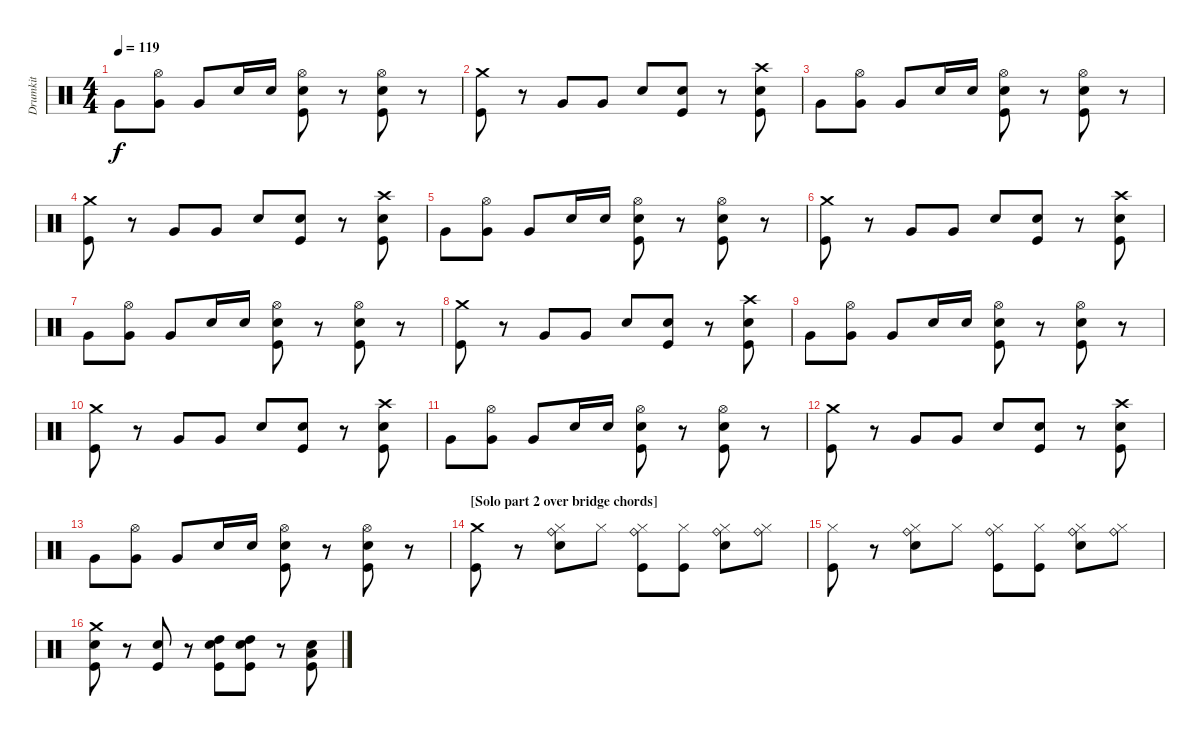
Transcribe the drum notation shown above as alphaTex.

\track ("Drumkit" "Drumkit") {instrument percussion}
\staff {score}
\articulation defaults
\ts (4 4)
\tempo 119
\clef neutral
\ks c "Very Low Tom (hit)".8{dy f}
("Hi-Hat (open)" "Very Low Tom (hit)").8 "Very Low Tom (hit)".8 "Snare (hit) 2".16 "Snare (hit) 2".16 ("Hi-Hat (open)" "Snare (hit) 2" "Kick (hit)").8 r.8 ("Hi-Hat (open)" "Snare (hit) 2" "Kick (hit)").8 r.8 |
("Crash medium (hit)" "Kick (hit)").8 r.8 "Very Low Tom (hit)".8 "Very Low Tom (hit)".8 "Snare (hit) 2".8 ("Snare (hit) 2" "Kick (hit)").8 r.8 ("Crash high (hit)" "Snare (hit) 2" "Kick (hit)").8 |
"Very Low Tom (hit)".8 ("Hi-Hat (open)" "Very Low Tom (hit)").8 "Very Low Tom (hit)".8 "Snare (hit) 2".16 "Snare (hit) 2".16 ("Hi-Hat (open)" "Snare (hit) 2" "Kick (hit)").8 r.8 ("Hi-Hat (open)" "Snare (hit) 2" "Kick (hit)").8 r.8 |
("Crash medium (hit)" "Kick (hit)").8 r.8 "Very Low Tom (hit)".8 "Very Low Tom (hit)".8 "Snare (hit) 2".8 ("Snare (hit) 2" "Kick (hit)").8 r.8 ("Crash high (hit)" "Snare (hit) 2" "Kick (hit)").8 |
"Very Low Tom (hit)".8 ("Hi-Hat (open)" "Very Low Tom (hit)").8 "Very Low Tom (hit)".8 "Snare (hit) 2".16 "Snare (hit) 2".16 ("Hi-Hat (open)" "Snare (hit) 2" "Kick (hit)").8 r.8 ("Hi-Hat (open)" "Snare (hit) 2" "Kick (hit)").8 r.8 |
("Crash medium (hit)" "Kick (hit)").8 r.8 "Very Low Tom (hit)".8 "Very Low Tom (hit)".8 "Snare (hit) 2".8 ("Snare (hit) 2" "Kick (hit)").8 r.8 ("Crash high (hit)" "Snare (hit) 2" "Kick (hit)").8 |
"Very Low Tom (hit)".8 ("Hi-Hat (open)" "Very Low Tom (hit)").8 "Very Low Tom (hit)".8 "Snare (hit) 2".16 "Snare (hit) 2".16 ("Hi-Hat (open)" "Snare (hit) 2" "Kick (hit)").8 r.8 ("Hi-Hat (open)" "Snare (hit) 2" "Kick (hit)").8 r.8 |
("Crash medium (hit)" "Kick (hit)").8 r.8 "Very Low Tom (hit)".8 "Very Low Tom (hit)".8 "Snare (hit) 2".8 ("Snare (hit) 2" "Kick (hit)").8 r.8 ("Crash high (hit)" "Snare (hit) 2" "Kick (hit)").8 |
"Very Low Tom (hit)".8 ("Hi-Hat (open)" "Very Low Tom (hit)").8 "Very Low Tom (hit)".8 "Snare (hit) 2".16 "Snare (hit) 2".16 ("Hi-Hat (open)" "Snare (hit) 2" "Kick (hit)").8 r.8 ("Hi-Hat (open)" "Snare (hit) 2" "Kick (hit)").8 r.8 |
("Crash medium (hit)" "Kick (hit)").8 r.8 "Very Low Tom (hit)".8 "Very Low Tom (hit)".8 "Snare (hit) 2".8 ("Snare (hit) 2" "Kick (hit)").8 r.8 ("Crash high (hit)" "Snare (hit) 2" "Kick (hit)").8 |
"Very Low Tom (hit)".8 ("Hi-Hat (open)" "Very Low Tom (hit)").8 "Very Low Tom (hit)".8 "Snare (hit) 2".16 "Snare (hit) 2".16 ("Hi-Hat (open)" "Snare (hit) 2" "Kick (hit)").8 r.8 ("Hi-Hat (open)" "Snare (hit) 2" "Kick (hit)").8 r.8 |
("Crash medium (hit)" "Kick (hit)").8 r.8 "Very Low Tom (hit)".8 "Very Low Tom (hit)".8 "Snare (hit) 2".8 ("Snare (hit) 2" "Kick (hit)").8 r.8 ("Crash high (hit)" "Snare (hit) 2" "Kick (hit)").8 |
"Very Low Tom (hit)".8 ("Hi-Hat (open)" "Very Low Tom (hit)").8 "Very Low Tom (hit)".8 "Snare (hit) 2".16 "Snare (hit) 2".16 ("Hi-Hat (open)" "Snare (hit) 2" "Kick (hit)").8 r.8 ("Hi-Hat (open)" "Snare (hit) 2" "Kick (hit)").8 r.8 |
\section ("" "[Solo part 2 over bridge chords]")
("Crash medium (hit)" "Kick (hit)").8 r.8 ("Hi-Hat (closed)" "Ride (bell)" "Snare (hit) 2").8 "Hi-Hat (closed)".8 ("Hi-Hat (closed)" "Ride (bell)" "Kick (hit)").8 ("Hi-Hat (closed)" "Kick (hit)").8 ("Hi-Hat (closed)" "Ride (bell)" "Snare (hit) 2").8 ("Hi-Hat (closed)" "Ride (bell)").8 |
("Hi-Hat (closed)" "Kick (hit)").8 r.8 ("Hi-Hat (closed)" "Ride (bell)" "Snare (hit) 2").8 "Hi-Hat (closed)".8 ("Hi-Hat (closed)" "Ride (bell)" "Kick (hit)").8 ("Hi-Hat (closed)" "Kick (hit)").8 ("Hi-Hat (closed)" "Ride (bell)" "Snare (hit) 2").8 ("Hi-Hat (closed)" "Ride (bell)").8 |
("Crash medium (hit)" "Snare (hit) 2" "Kick (hit)").8 r.8 ("Snare (hit) 2" "Kick (hit)").8 r.8 ("High Tom (hit)" "Snare (hit) 2" "Kick (hit)").8 ("High Tom (hit)" "Snare (hit) 2" "Kick (hit)").8 r.8 ("Low Tom (hit)" "Snare (hit) 2" "Kick (hit)").8
